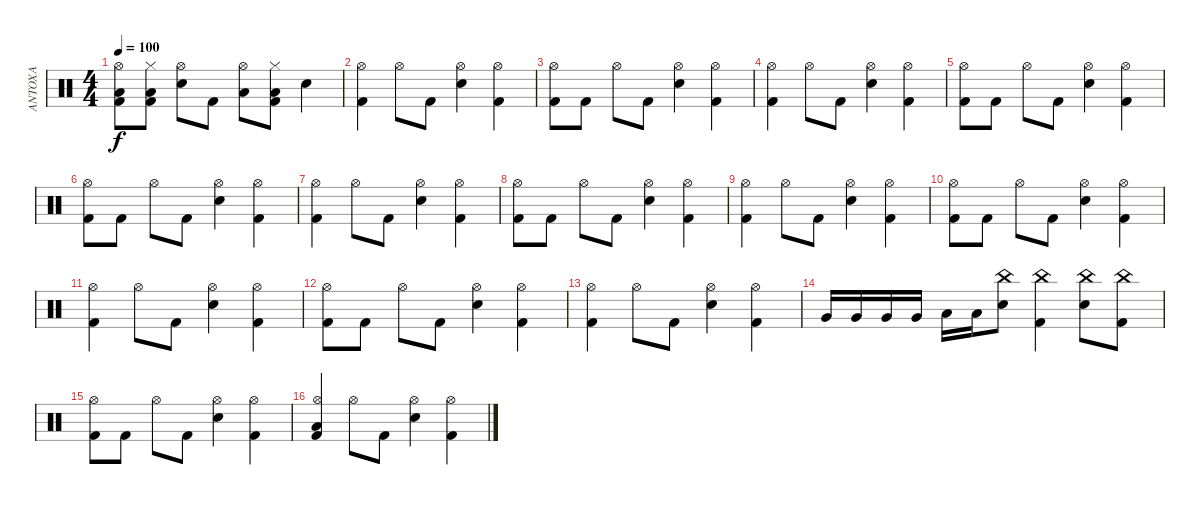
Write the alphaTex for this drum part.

\track ("ANTOXA" "ANTOXA") {instrument percussion}
\staff {score}
\articulation defaults
\ts (4 4)
\tempo 100
\clef neutral
\ks c
("Kick (hit) 2" "Hi-Hat (open)" "Low Floor Tom (hit)").8{dy f} ("Kick (hit) 2" "Hi-Hat (closed)" "Low Floor Tom (hit)").8 ("Hi-Hat (open)" "Electric Snare (hit)").8 "Kick (hit) 2".8 ("Hi-Hat (open)" "Low Floor Tom (hit)").8 ("Kick (hit) 2" "Hi-Hat (closed)" "Low Floor Tom (hit)").8 "Electric Snare (hit)".4 |
("Kick (hit) 2" "Hi-Hat (open)").4 "Hi-Hat (open)".8 "Kick (hit) 2".8 ("Hi-Hat (open)" "Electric Snare (hit)").4 ("Kick (hit) 2" "Hi-Hat (open)").4 |
("Kick (hit) 2" "Hi-Hat (open)").8 "Kick (hit) 2".8 "Hi-Hat (open)".8 "Kick (hit) 2".8 ("Hi-Hat (open)" "Electric Snare (hit)").4 ("Kick (hit) 2" "Hi-Hat (open)").4 |
("Kick (hit) 2" "Hi-Hat (open)").4 "Hi-Hat (open)".8 "Kick (hit) 2".8 ("Hi-Hat (open)" "Electric Snare (hit)").4 ("Kick (hit) 2" "Hi-Hat (open)").4 |
("Kick (hit) 2" "Hi-Hat (open)").8 "Kick (hit) 2".8 "Hi-Hat (open)".8 "Kick (hit) 2".8 ("Hi-Hat (open)" "Electric Snare (hit)").4 ("Kick (hit) 2" "Hi-Hat (open)").4 |
("Kick (hit) 2" "Hi-Hat (open)").8 "Kick (hit) 2".8 "Hi-Hat (open)".8 "Kick (hit) 2".8 ("Hi-Hat (open)" "Electric Snare (hit)").4 ("Kick (hit) 2" "Hi-Hat (open)").4 |
("Kick (hit) 2" "Hi-Hat (open)").4 "Hi-Hat (open)".8 "Kick (hit) 2".8 ("Hi-Hat (open)" "Electric Snare (hit)").4 ("Kick (hit) 2" "Hi-Hat (open)").4 |
("Kick (hit) 2" "Hi-Hat (open)").8 "Kick (hit) 2".8 "Hi-Hat (open)".8 "Kick (hit) 2".8 ("Hi-Hat (open)" "Electric Snare (hit)").4 ("Kick (hit) 2" "Hi-Hat (open)").4 |
("Kick (hit) 2" "Hi-Hat (open)").4 "Hi-Hat (open)".8 "Kick (hit) 2".8 ("Hi-Hat (open)" "Electric Snare (hit)").4 ("Kick (hit) 2" "Hi-Hat (open)").4 |
("Kick (hit) 2" "Hi-Hat (open)").8 "Kick (hit) 2".8 "Hi-Hat (open)".8 "Kick (hit) 2".8 ("Hi-Hat (open)" "Electric Snare (hit)").4 ("Kick (hit) 2" "Hi-Hat (open)").4 |
("Kick (hit) 2" "Hi-Hat (open)").4 "Hi-Hat (open)".8 "Kick (hit) 2".8 ("Hi-Hat (open)" "Electric Snare (hit)").4 ("Kick (hit) 2" "Hi-Hat (open)").4 |
("Kick (hit) 2" "Hi-Hat (open)").8 "Kick (hit) 2".8 "Hi-Hat (open)".8 "Kick (hit) 2".8 ("Hi-Hat (open)" "Electric Snare (hit)").4 ("Kick (hit) 2" "Hi-Hat (open)").4 |
("Kick (hit) 2" "Hi-Hat (open)").4 "Hi-Hat (open)".8 "Kick (hit) 2".8 ("Hi-Hat (open)" "Electric Snare (hit)").4 ("Kick (hit) 2" "Hi-Hat (open)").4 |
"Very Low Tom (hit)".16 "Very Low Tom (hit)".16 "Very Low Tom (hit)".16 "Very Low Tom (hit)".16 "Low Floor Tom (hit)".16 "Low Floor Tom (hit)".16 ("China (hit)" "Electric Snare (hit)").8 ("Kick (hit) 2" "China (hit)").4 ("Electric Snare (hit)" "China (hit)").8 ("Kick (hit) 2" "China (hit)").8 |
("Kick (hit) 2" "Hi-Hat (open)").8 "Kick (hit) 2".8 "Hi-Hat (open)".8 "Kick (hit) 2".8 ("Hi-Hat (open)" "Electric Snare (hit)").4 ("Kick (hit) 2" "Hi-Hat (open)").4 |
("Kick (hit) 2" "Hi-Hat (open)" "Low Floor Tom (hit)").4 "Hi-Hat (open)".8 "Kick (hit) 2".8 ("Hi-Hat (open)" "Electric Snare (hit)").4 ("Kick (hit) 2" "Hi-Hat (open)").4
